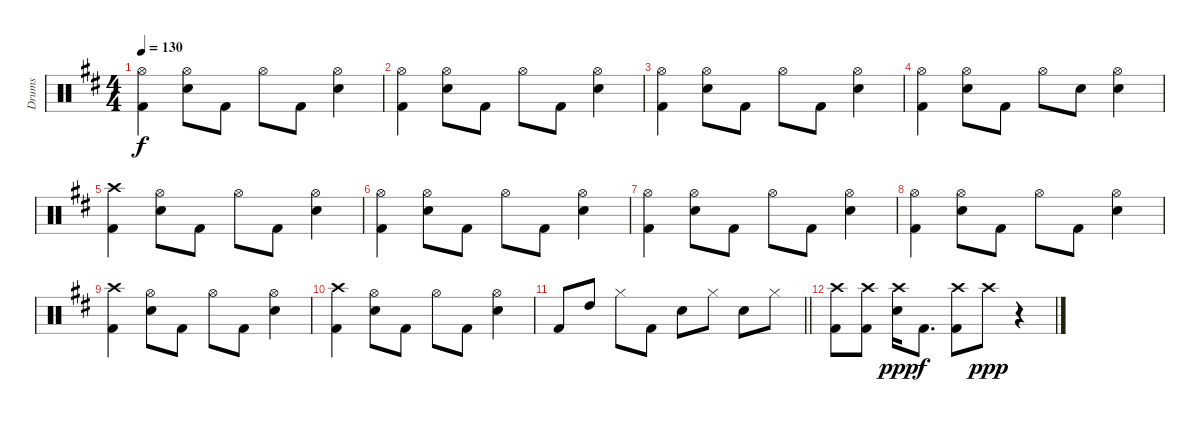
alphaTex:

\track ("Drums" "Drums") {instrument percussion}
\staff {score}
\articulation defaults
\ts (4 4)
\tempo 130
\clef neutral
\ks d
("Kick (hit) 2" "Hi-Hat (open)").4{dy f} ("Hi-Hat (open)" "Electric Snare (hit)").8 "Kick (hit) 2".8 "Hi-Hat (open)".8 "Kick (hit) 2".8 ("Electric Snare (hit)" "Hi-Hat (open)").4 |
("Kick (hit) 2" "Hi-Hat (open)").4 ("Hi-Hat (open)" "Electric Snare (hit)").8 "Kick (hit) 2".8 "Hi-Hat (open)".8 "Kick (hit) 2".8 ("Electric Snare (hit)" "Hi-Hat (open)").4 |
("Kick (hit) 2" "Hi-Hat (open)").4 ("Hi-Hat (open)" "Electric Snare (hit)").8 "Kick (hit) 2".8 "Hi-Hat (open)".8 "Kick (hit) 2".8 ("Electric Snare (hit)" "Hi-Hat (open)").4 |
("Kick (hit) 2" "Hi-Hat (open)").4 ("Hi-Hat (open)" "Electric Snare (hit)").8 "Kick (hit) 2".8 "Hi-Hat (open)".8 "Electric Snare (hit)".8 ("Electric Snare (hit)" "Hi-Hat (open)").4 |
("Kick (hit) 2" "Crash high (hit)").4 ("Hi-Hat (open)" "Electric Snare (hit)").8 "Kick (hit) 2".8 "Hi-Hat (open)".8 "Kick (hit) 2".8 ("Electric Snare (hit)" "Hi-Hat (open)").4 |
("Kick (hit) 2" "Hi-Hat (open)").4 ("Hi-Hat (open)" "Electric Snare (hit)").8 "Kick (hit) 2".8 "Hi-Hat (open)".8 "Kick (hit) 2".8 ("Electric Snare (hit)" "Hi-Hat (open)").4 |
("Kick (hit) 2" "Hi-Hat (open)").4 ("Hi-Hat (open)" "Electric Snare (hit)").8 "Kick (hit) 2".8 "Hi-Hat (open)".8 "Kick (hit) 2".8 ("Electric Snare (hit)" "Hi-Hat (open)").4 |
("Kick (hit) 2" "Hi-Hat (open)").4 ("Hi-Hat (open)" "Electric Snare (hit)").8 "Kick (hit) 2".8 "Hi-Hat (open)".8 "Kick (hit) 2".8 ("Electric Snare (hit)" "Hi-Hat (open)").4 |
("Kick (hit) 2" "Crash high (hit)").4 ("Hi-Hat (open)" "Electric Snare (hit)").8 "Kick (hit) 2".8 "Hi-Hat (open)".8 "Kick (hit) 2".8 ("Electric Snare (hit)" "Hi-Hat (open)").4 |
("Kick (hit) 2" "Crash high (hit)").4 ("Hi-Hat (open)" "Electric Snare (hit)").8 "Kick (hit) 2".8 "Hi-Hat (open)".8 "Kick (hit) 2".8 ("Electric Snare (hit)" "Hi-Hat (open)").4 |
\barLineRight lightlight "Kick (hit) 2".8 "High Tom (hit)".8 "Hi-Hat (closed)".8 "Kick (hit) 2".8 "Electric Snare (hit)".8 "Hi-Hat (closed)".8 "Electric Snare (hit)".8 "Hi-Hat (closed)".8
|
("Crash high (hit)" "Kick (hit) 2").8 ("Crash high (hit)" "Kick (hit) 2").8 ("Crash high (hit)" "Electric Snare (hit)").16{dy ppp} "Kick (hit) 2".8{d dy f} ("Crash high (hit)" "Kick (hit) 2").8 "Crash high (hit)".8{dy ppp} r.4
